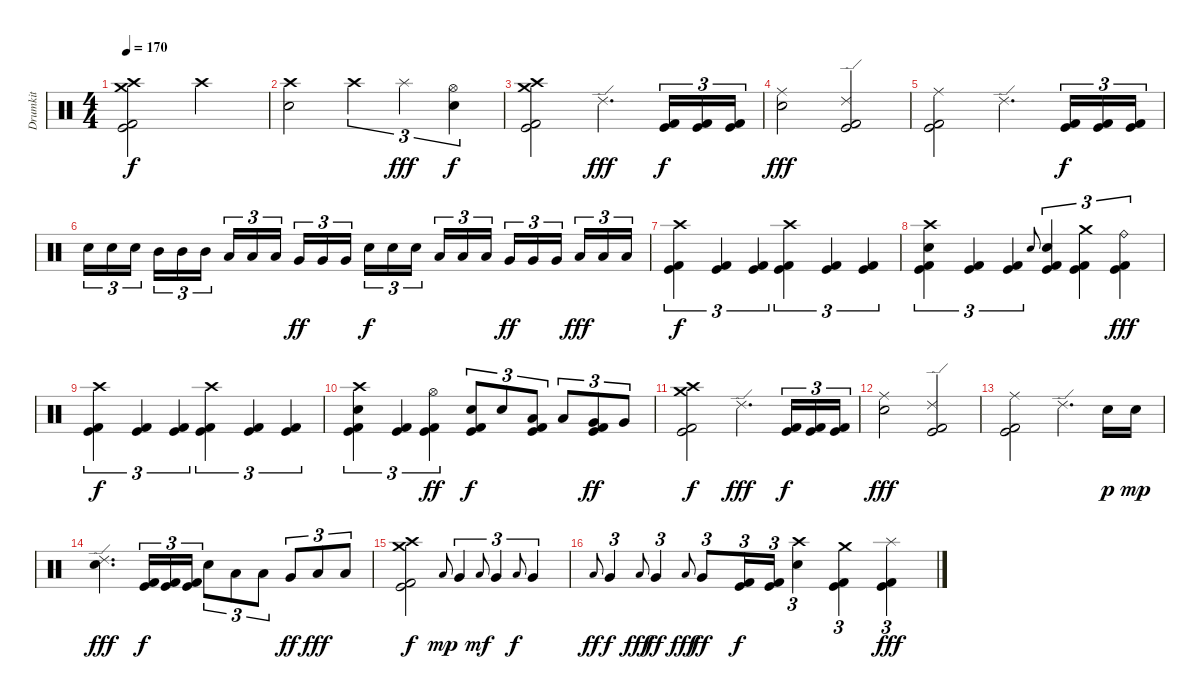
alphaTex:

\track ("Drumkit" "Drumkit") {instrument percussion}
\staff {score}
\articulation defaults
\ts (4 4)
\tempo 170
\clef neutral
\ks c
("Crash high (hit)" "Crash medium (hit)" "Kick (hit)" "Kick (hit) 2").2{dy f} "Crash high (hit)".2 |
("Crash high (hit)" "Electric Snare (hit)").2 "Crash high (hit)".4{tu (3 2)} "Splash (hit)".4{tu (3 2) dy fff} ("Hi-Hat (open)" "Electric Snare (hit)").4{tu (3 2) dy f} |
("Crash high (hit)" "Crash medium (hit)" "Kick (hit)" "Kick (hit) 2").2 "Ride (edge) 2".4{d dy fff} ("Kick (hit)" "Kick (hit) 2").16{tu (3 2) dy f} ("Kick (hit)" "Kick (hit) 2").16{tu (3 2)} ("Kick (hit)" "Kick (hit) 2").16{tu (3 2)} |
("Ride (middle)" "Electric Snare (hit)").2{dy fff} ("Ride (edge) 2" "Kick (hit)" "Kick (hit) 2").2 |
("Ride (middle)" "Kick (hit)" "Kick (hit) 2").2 "Ride (edge) 2".4{d} ("Kick (hit)" "Kick (hit) 2").16{tu (3 2) dy f} ("Kick (hit)" "Kick (hit) 2").16{tu (3 2)} ("Kick (hit)" "Kick (hit) 2").16{tu (3 2)} |
"Electric Snare (hit)".16{tu (3 2)} "Electric Snare (hit)".16{tu (3 2)} "Electric Snare (hit)".16{tu (3 2) beam splitsecondary} "Mid Tom (hit)".16{tu (3 2)} "Mid Tom (hit)".16{tu (3 2)} "Mid Tom (hit)".16{tu (3 2)} "Low Tom (hit)".16{tu (3 2)} "Low Tom (hit)".16{tu (3 2)} "Low Tom (hit)".16{tu (3 2) beam splitsecondary} "Very Low Tom (hit)".16{tu (3 2) dy ff} "Very Low Tom (hit)".16{tu (3 2)} "Very Low Tom (hit)".16{tu (3 2)} "Electric Snare (hit)".16{tu (3 2) dy f} "Electric Snare (hit)".16{tu (3 2)} "Electric Snare (hit)".16{tu (3 2) beam splitsecondary} "Low Tom (hit)".16{tu (3 2)} "Low Tom (hit)".16{tu (3 2)} "Low Tom (hit)".16{tu (3 2)} "Very Low Tom (hit)".16{tu (3 2) dy ff} "Very Low Tom (hit)".16{tu (3 2)} "Very Low Tom (hit)".16{tu (3 2) beam splitsecondary} "Low Floor Tom (hit)".16{tu (3 2) dy fff} "Low Floor Tom (hit)".16{tu (3 2)} "Low Floor Tom (hit)".16{tu (3 2)} |
("Crash high (hit)" "Kick (hit)" "Kick (hit) 2").4{tu (3 2) dy f} ("Kick (hit)" "Kick (hit) 2").4{tu (3 2)} ("Kick (hit)" "Kick (hit) 2").4{tu (3 2)} ("Crash high (hit)" "Kick (hit)" "Kick (hit) 2").4{tu (3 2)} ("Kick (hit)" "Kick (hit) 2").4{tu (3 2)} ("Kick (hit)" "Kick (hit) 2").4{tu (3 2)} |
("Crash high (hit)" "Electric Snare (hit)" "Kick (hit)" "Kick (hit) 2").4{tu (3 2)} ("Kick (hit)" "Kick (hit) 2").4{tu (3 2)} ("Kick (hit)" "Kick (hit) 2").4{tu (3 2)} "Electric Snare (hit)".8{gr onbeat} ("Electric Snare (hit)" "Kick (hit)" "Kick (hit) 2").4{tu (3 2)} ("Crash medium (hit)" "Kick (hit)" "Kick (hit) 2").4{tu (3 2)} ("Ride (bell)" "Kick (hit)" "Kick (hit) 2").4{tu (3 2) dy fff} |
("Crash high (hit)" "Kick (hit)" "Kick (hit) 2").4{tu (3 2) dy f} ("Kick (hit)" "Kick (hit) 2").4{tu (3 2)} ("Kick (hit)" "Kick (hit) 2").4{tu (3 2)} ("Crash high (hit)" "Kick (hit)" "Kick (hit) 2").4{tu (3 2)} ("Kick (hit)" "Kick (hit) 2").4{tu (3 2)} ("Kick (hit)" "Kick (hit) 2").4{tu (3 2)} |
("Crash high (hit)" "Electric Snare (hit)" "Kick (hit)" "Kick (hit) 2").4{tu (3 2)} ("Kick (hit)" "Kick (hit) 2").4{tu (3 2)} ("Hi-Hat (open)" "Kick (hit)" "Kick (hit) 2").4{tu (3 2) dy ff} ("Electric Snare (hit)" "Kick (hit)" "Kick (hit) 2").8{tu (3 2) dy f} "Electric Snare (hit)".8{tu (3 2)} ("Low Tom (hit)" "Kick (hit)" "Kick (hit) 2").8{tu (3 2)} "Low Tom (hit)".8{tu (3 2)} ("Very Low Tom (hit)" "Kick (hit)" "Kick (hit) 2").8{tu (3 2) dy ff} "Very Low Tom (hit)".8{tu (3 2)} |
("Crash high (hit)" "Crash medium (hit)" "Kick (hit)" "Kick (hit) 2").2{dy f} "Ride (edge) 2".4{d dy fff} ("Kick (hit)" "Kick (hit) 2").16{tu (3 2) dy f} ("Kick (hit)" "Kick (hit) 2").16{tu (3 2)} ("Kick (hit)" "Kick (hit) 2").16{tu (3 2)} |
("Ride (middle)" "Electric Snare (hit)").2{dy fff} ("Ride (edge) 2" "Kick (hit)" "Kick (hit) 2").2 |
("Ride (middle)" "Kick (hit)" "Kick (hit) 2").2 "Ride (edge) 2".4{d} "Electric Snare (hit)".16{dy p} "Electric Snare (hit)".16{dy mp} |
("Ride (edge) 2" "Electric Snare (hit)").4{d dy fff} ("Kick (hit)" "Kick (hit) 2").16{tu (3 2) dy f} ("Kick (hit)" "Kick (hit) 2").16{tu (3 2)} ("Kick (hit)" "Kick (hit) 2").16{tu (3 2)} "Electric Snare (hit)".8{tu (3 2)} "Low Tom (hit)".8{tu (3 2)} "Low Tom (hit)".8{tu (3 2)} "Very Low Tom (hit)".8{tu (3 2) dy ff} "Low Floor Tom (hit)".8{tu (3 2) dy fff} "Low Floor Tom (hit)".8{tu (3 2)} |
("Crash high (hit)" "Crash medium (hit)" "Kick (hit)" "Kick (hit) 2").2{dy f} "Low Floor Tom (hit)".8{gr onbeat dy mp} "Very Low Tom (hit)".4{tu (3 2)} "Low Floor Tom (hit)".8{gr onbeat dy mf} "Very Low Tom (hit)".4{tu (3 2)} "Low Floor Tom (hit)".8{gr onbeat dy f} "Very Low Tom (hit)".4{tu (3 2)} |
"Low Floor Tom (hit)".8{gr onbeat dy ff} "Very Low Tom (hit)".4{tu (3 2) dy f} "Low Floor Tom (hit)".8{gr onbeat dy fff} "Very Low Tom (hit)".4{tu (3 2) dy ff} "Low Floor Tom (hit)".8{gr onbeat dy fff} "Very Low Tom (hit)".8{tu (3 2) dy ff} ("Kick (hit)" "Kick (hit) 2").16{tu (3 2) dy f} ("Kick (hit)" "Kick (hit) 2").16{tu (3 2)} ("Crash high (hit)" "Electric Snare (hit)").4{tu (3 2)} ("Crash medium (hit)" "Kick (hit)" "Kick (hit) 2").4{tu (3 2)} ("Splash (hit)" "Kick (hit)" "Kick (hit) 2").4{tu (3 2) dy fff}
